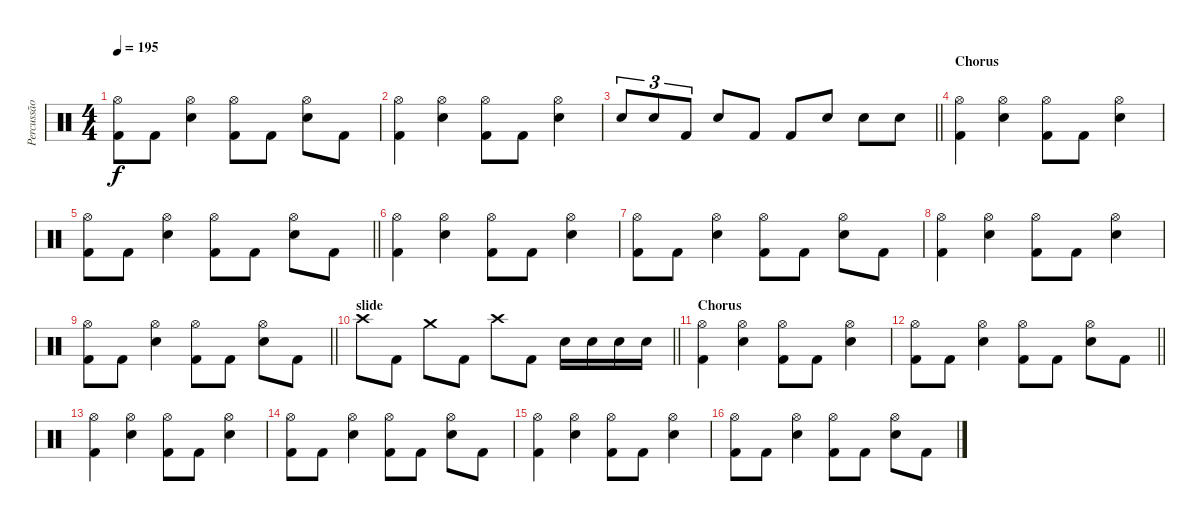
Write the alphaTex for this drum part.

\track ("Percussão" "Percussão") {instrument percussion}
\staff {score}
\articulation defaults
\ts (4 4)
\tempo 195
\clef neutral
\ks c
("Hi-Hat (open)" "Kick (hit) 2").8{dy f} "Kick (hit) 2".8 ("Hi-Hat (open)" "Snare (hit) 2").4 ("Hi-Hat (open)" "Kick (hit) 2").8 "Kick (hit) 2".8 ("Hi-Hat (open)" "Snare (hit) 2").8 "Kick (hit) 2".8 |
("Hi-Hat (open)" "Kick (hit) 2").4 ("Hi-Hat (open)" "Snare (hit) 2").4 ("Hi-Hat (open)" "Kick (hit) 2").8 "Kick (hit) 2".8 ("Hi-Hat (open)" "Snare (hit) 2").4 |
\barLineRight lightlight "Snare (hit) 2".8{tu (3 2)} "Snare (hit) 2".8{tu (3 2)} "Kick (hit) 2".8{tu (3 2)} "Snare (hit) 2".8 "Kick (hit) 2".8 "Kick (hit) 2".8 "Snare (hit) 2".8 "Snare (hit) 2".8 "Snare (hit) 2".8
|
\section ("" "Chorus")
("Hi-Hat (open)" "Kick (hit) 2").4 ("Hi-Hat (open)" "Snare (hit) 2").4 ("Hi-Hat (open)" "Kick (hit) 2").8 "Kick (hit) 2".8 ("Hi-Hat (open)" "Snare (hit) 2").4 |
\barLineRight lightlight
("Hi-Hat (open)" "Kick (hit) 2").8 "Kick (hit) 2".8 ("Hi-Hat (open)" "Snare (hit) 2").4 ("Hi-Hat (open)" "Kick (hit) 2").8 "Kick (hit) 2".8 ("Hi-Hat (open)" "Snare (hit) 2").8 "Kick (hit) 2".8 |
("Hi-Hat (open)" "Kick (hit) 2").4 ("Hi-Hat (open)" "Snare (hit) 2").4 ("Hi-Hat (open)" "Kick (hit) 2").8 "Kick (hit) 2".8 ("Hi-Hat (open)" "Snare (hit) 2").4 |
("Hi-Hat (open)" "Kick (hit) 2").8 "Kick (hit) 2".8 ("Hi-Hat (open)" "Snare (hit) 2").4 ("Hi-Hat (open)" "Kick (hit) 2").8 "Kick (hit) 2".8 ("Hi-Hat (open)" "Snare (hit) 2").8 "Kick (hit) 2".8 |
("Hi-Hat (open)" "Kick (hit) 2").4 ("Hi-Hat (open)" "Snare (hit) 2").4 ("Hi-Hat (open)" "Kick (hit) 2").8 "Kick (hit) 2".8 ("Hi-Hat (open)" "Snare (hit) 2").4 |
\barLineRight lightlight
("Hi-Hat (open)" "Kick (hit) 2").8 "Kick (hit) 2".8 ("Hi-Hat (open)" "Snare (hit) 2").4 ("Hi-Hat (open)" "Kick (hit) 2").8 "Kick (hit) 2".8 ("Hi-Hat (open)" "Snare (hit) 2").8 "Kick (hit) 2".8 |
\section ("" "slide")
\barLineRight lightlight "Crash high (hit)".8 "Kick (hit) 2".8 "Crash medium (hit)".8 "Kick (hit) 2".8 "Crash high (hit)".8 "Kick (hit) 2".8 "Snare (hit) 2".16 "Snare (hit) 2".16 "Snare (hit) 2".16 "Snare (hit) 2".16
|
\section ("" "Chorus")
("Hi-Hat (open)" "Kick (hit) 2").4 ("Hi-Hat (open)" "Snare (hit) 2").4 ("Hi-Hat (open)" "Kick (hit) 2").8 "Kick (hit) 2".8 ("Hi-Hat (open)" "Snare (hit) 2").4 |
\barLineRight lightlight
("Hi-Hat (open)" "Kick (hit) 2").8 "Kick (hit) 2".8 ("Hi-Hat (open)" "Snare (hit) 2").4 ("Hi-Hat (open)" "Kick (hit) 2").8 "Kick (hit) 2".8 ("Hi-Hat (open)" "Snare (hit) 2").8 "Kick (hit) 2".8 |
("Hi-Hat (open)" "Kick (hit) 2").4 ("Hi-Hat (open)" "Snare (hit) 2").4 ("Hi-Hat (open)" "Kick (hit) 2").8 "Kick (hit) 2".8 ("Hi-Hat (open)" "Snare (hit) 2").4 |
("Hi-Hat (open)" "Kick (hit) 2").8 "Kick (hit) 2".8 ("Hi-Hat (open)" "Snare (hit) 2").4 ("Hi-Hat (open)" "Kick (hit) 2").8 "Kick (hit) 2".8 ("Hi-Hat (open)" "Snare (hit) 2").8 "Kick (hit) 2".8 |
("Hi-Hat (open)" "Kick (hit) 2").4 ("Hi-Hat (open)" "Snare (hit) 2").4 ("Hi-Hat (open)" "Kick (hit) 2").8 "Kick (hit) 2".8 ("Hi-Hat (open)" "Snare (hit) 2").4 |
("Hi-Hat (open)" "Kick (hit) 2").8 "Kick (hit) 2".8 ("Hi-Hat (open)" "Snare (hit) 2").4 ("Hi-Hat (open)" "Kick (hit) 2").8 "Kick (hit) 2".8 ("Hi-Hat (open)" "Snare (hit) 2").8 "Kick (hit) 2".8
